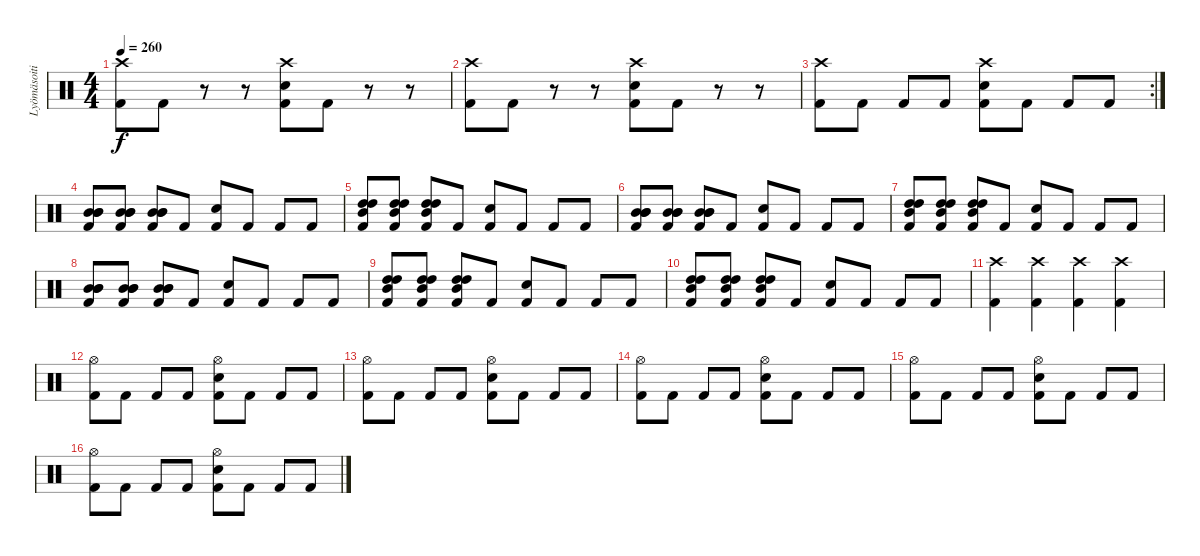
\track ("Lyömäsoitin" "Lyömäsoiti") {instrument percussion}
\staff {score}
\articulation defaults
\ts (4 4)
\tempo 260
\clef neutral
\ks c
("Crash high (hit)" "Kick (hit) 2").8{dy f} "Kick (hit) 2".8 r.8 r.8 ("Crash high (hit)" "Electric Snare (hit)" "Kick (hit) 2").8 "Kick (hit) 2".8 r.8 r.8 |
("Crash high (hit)" "Kick (hit) 2").8 "Kick (hit) 2".8 r.8 r.8 ("Crash high (hit)" "Electric Snare (hit)" "Kick (hit) 2").8 "Kick (hit) 2".8 r.8 r.8 |
\rc 2
("Crash high (hit)" "Kick (hit) 2").8 "Kick (hit) 2".8 "Kick (hit) 2".8 "Kick (hit) 2".8 ("Crash high (hit)" "Electric Snare (hit)" "Kick (hit) 2").8 "Kick (hit) 2".8 "Kick (hit) 2".8 "Kick (hit) 2".8 |
("Mid Tom (hit)" "Mid Tom (hit)" "Mid Tom (hit)" "Kick (hit) 2").8 ("Mid Tom (hit)" "Mid Tom (hit)" "Mid Tom (hit)" "Kick (hit) 2").8 ("Mid Tom (hit)" "Mid Tom (hit)" "Mid Tom (hit)" "Kick (hit) 2").8 "Kick (hit) 2".8 ("Electric Snare (hit)" "Kick (hit) 2").8 "Kick (hit) 2".8 "Kick (hit) 2".8 "Kick (hit) 2".8 |
("High Tom (hit)" "High Tom (hit)" "Mid Tom (hit)" "Kick (hit) 2").8 ("High Tom (hit)" "High Tom (hit)" "Mid Tom (hit)" "Kick (hit) 2").8 ("High Tom (hit)" "High Tom (hit)" "Mid Tom (hit)" "Kick (hit) 2").8 "Kick (hit) 2".8 ("Electric Snare (hit)" "Kick (hit) 2").8 "Kick (hit) 2".8 "Kick (hit) 2".8 "Kick (hit) 2".8 |
("Mid Tom (hit)" "Mid Tom (hit)" "Mid Tom (hit)" "Kick (hit) 2").8 ("Mid Tom (hit)" "Mid Tom (hit)" "Mid Tom (hit)" "Kick (hit) 2").8 ("Mid Tom (hit)" "Mid Tom (hit)" "Mid Tom (hit)" "Kick (hit) 2").8 "Kick (hit) 2".8 ("Electric Snare (hit)" "Kick (hit) 2").8 "Kick (hit) 2".8 "Kick (hit) 2".8 "Kick (hit) 2".8 |
("High Tom (hit)" "High Tom (hit)" "Mid Tom (hit)" "Kick (hit) 2").8 ("High Tom (hit)" "High Tom (hit)" "Mid Tom (hit)" "Kick (hit) 2").8 ("High Tom (hit)" "High Tom (hit)" "Mid Tom (hit)" "Kick (hit) 2").8 "Kick (hit) 2".8 ("Electric Snare (hit)" "Kick (hit) 2").8 "Kick (hit) 2".8 "Kick (hit) 2".8 "Kick (hit) 2".8 |
("Mid Tom (hit)" "Mid Tom (hit)" "Mid Tom (hit)" "Kick (hit) 2").8 ("Mid Tom (hit)" "Mid Tom (hit)" "Mid Tom (hit)" "Kick (hit) 2").8 ("Mid Tom (hit)" "Mid Tom (hit)" "Mid Tom (hit)" "Kick (hit) 2").8 "Kick (hit) 2".8 ("Electric Snare (hit)" "Kick (hit) 2").8 "Kick (hit) 2".8 "Kick (hit) 2".8 "Kick (hit) 2".8 |
("High Tom (hit)" "High Tom (hit)" "Mid Tom (hit)" "Kick (hit) 2").8 ("High Tom (hit)" "High Tom (hit)" "Mid Tom (hit)" "Kick (hit) 2").8 ("High Tom (hit)" "High Tom (hit)" "Mid Tom (hit)" "Kick (hit) 2").8 "Kick (hit) 2".8 ("Electric Snare (hit)" "Kick (hit) 2").8 "Kick (hit) 2".8 "Kick (hit) 2".8 "Kick (hit) 2".8 |
("High Tom (hit)" "High Tom (hit)" "Mid Tom (hit)" "Kick (hit) 2").8 ("High Tom (hit)" "High Tom (hit)" "Mid Tom (hit)" "Kick (hit) 2").8 ("High Tom (hit)" "High Tom (hit)" "Mid Tom (hit)" "Kick (hit) 2").8 "Kick (hit) 2".8 ("Electric Snare (hit)" "Kick (hit) 2").8 "Kick (hit) 2".8 "Kick (hit) 2".8 "Kick (hit) 2".8 |
("Crash high (hit)" "Kick (hit) 2").4 ("Crash high (hit)" "Kick (hit) 2").4 ("Crash high (hit)" "Kick (hit) 2").4 ("Crash high (hit)" "Kick (hit) 2").4 |
("Hi-Hat (open)" "Kick (hit) 2").8 "Kick (hit) 2".8 "Kick (hit) 2".8 "Kick (hit) 2".8 ("Hi-Hat (open)" "Electric Snare (hit)" "Kick (hit) 2").8 "Kick (hit) 2".8 "Kick (hit) 2".8 "Kick (hit) 2".8 |
("Hi-Hat (open)" "Kick (hit) 2").8 "Kick (hit) 2".8 "Kick (hit) 2".8 "Kick (hit) 2".8 ("Hi-Hat (open)" "Electric Snare (hit)" "Kick (hit) 2").8 "Kick (hit) 2".8 "Kick (hit) 2".8 "Kick (hit) 2".8 |
("Hi-Hat (open)" "Kick (hit) 2").8 "Kick (hit) 2".8 "Kick (hit) 2".8 "Kick (hit) 2".8 ("Hi-Hat (open)" "Electric Snare (hit)" "Kick (hit) 2").8 "Kick (hit) 2".8 "Kick (hit) 2".8 "Kick (hit) 2".8 |
("Hi-Hat (open)" "Kick (hit) 2").8 "Kick (hit) 2".8 "Kick (hit) 2".8 "Kick (hit) 2".8 ("Hi-Hat (open)" "Electric Snare (hit)" "Kick (hit) 2").8 "Kick (hit) 2".8 "Kick (hit) 2".8 "Kick (hit) 2".8 |
("Hi-Hat (open)" "Kick (hit) 2").8 "Kick (hit) 2".8 "Kick (hit) 2".8 "Kick (hit) 2".8 ("Hi-Hat (open)" "Electric Snare (hit)" "Kick (hit) 2").8 "Kick (hit) 2".8 "Kick (hit) 2".8 "Kick (hit) 2".8
